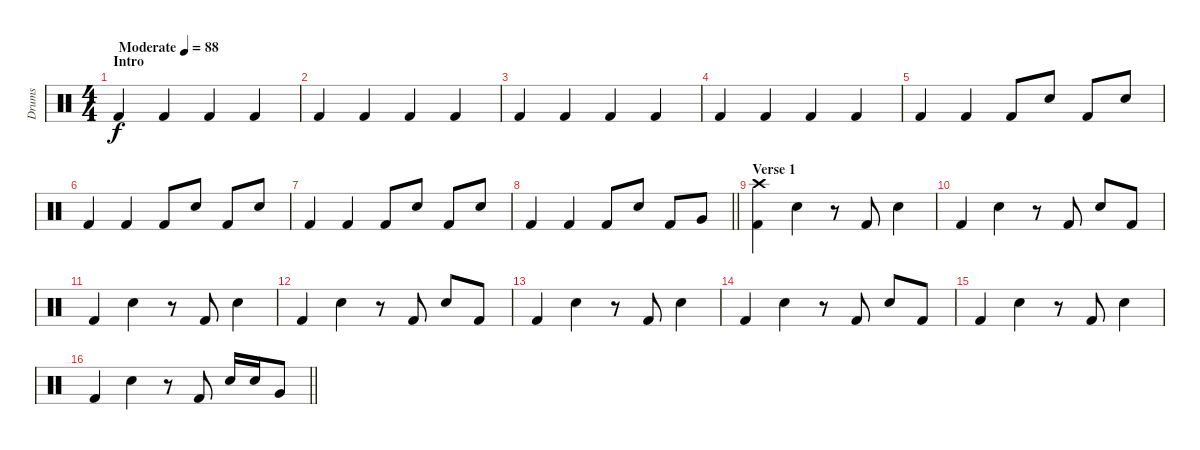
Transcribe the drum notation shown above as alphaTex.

\track ("Drums" "Drums") {instrument percussion}
\staff {score}
\articulation defaults
\ts (4 4)
\section ("" "Intro")
\tempo (88 "Moderate")
\clef neutral
\ks c "Kick (hit) 2".4{dy f} "Kick (hit) 2".4 "Kick (hit) 2".4 "Kick (hit) 2".4
|
"Kick (hit) 2".4 "Kick (hit) 2".4 "Kick (hit) 2".4 "Kick (hit) 2".4 |
"Kick (hit) 2".4 "Kick (hit) 2".4 "Kick (hit) 2".4 "Kick (hit) 2".4 |
"Kick (hit) 2".4 "Kick (hit) 2".4 "Kick (hit) 2".4 "Kick (hit) 2".4 |
"Kick (hit) 2".4 "Kick (hit) 2".4 "Kick (hit) 2".8 "Electric Snare (hit)".8 "Kick (hit) 2".8 "Electric Snare (hit)".8 |
"Kick (hit) 2".4 "Kick (hit) 2".4 "Kick (hit) 2".8 "Electric Snare (hit)".8 "Kick (hit) 2".8 "Electric Snare (hit)".8 |
"Kick (hit) 2".4 "Kick (hit) 2".4 "Kick (hit) 2".8 "Electric Snare (hit)".8 "Kick (hit) 2".8 "Electric Snare (hit)".8 |
\barLineRight lightlight "Kick (hit) 2".4 "Kick (hit) 2".4 "Kick (hit) 2".8 "Electric Snare (hit)".8 "Kick (hit) 2".8 "Very Low Tom (hit)".8
|
\section ("" "Verse 1")
("Kick (hit) 2" "Crash high (hit)").4 "Electric Snare (hit)".4 r.8 "Kick (hit) 2".8 "Electric Snare (hit)".4 |
"Kick (hit) 2".4 "Electric Snare (hit)".4 r.8 "Kick (hit) 2".8 "Electric Snare (hit)".8 "Kick (hit) 2".8 |
"Kick (hit) 2".4 "Electric Snare (hit)".4 r.8 "Kick (hit) 2".8 "Electric Snare (hit)".4 |
"Kick (hit) 2".4 "Electric Snare (hit)".4 r.8 "Kick (hit) 2".8 "Electric Snare (hit)".8 "Kick (hit) 2".8 |
"Kick (hit) 2".4 "Electric Snare (hit)".4 r.8 "Kick (hit) 2".8 "Electric Snare (hit)".4 |
"Kick (hit) 2".4 "Electric Snare (hit)".4 r.8 "Kick (hit) 2".8 "Electric Snare (hit)".8 "Kick (hit) 2".8 |
"Kick (hit) 2".4 "Electric Snare (hit)".4 r.8 "Kick (hit) 2".8 "Electric Snare (hit)".4 |
\barLineRight lightlight "Kick (hit) 2".4 "Electric Snare (hit)".4
r.8 "Kick (hit) 2".8 "Electric Snare (hit)".16 "Electric Snare (hit)".16 "Very Low Tom (hit)".8
